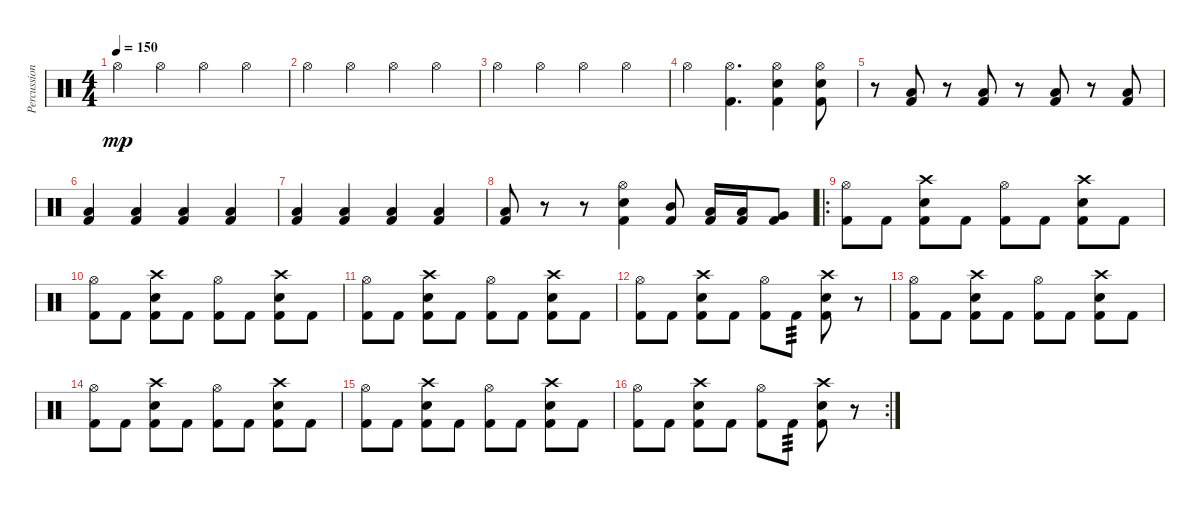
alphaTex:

\track ("Percussion" "Percussion") {instrument percussion}
\staff {score}
\articulation defaults
\ts (4 4)
\tempo 150
\clef neutral
\ks c "Hi-Hat (open)".4{dy mp} "Hi-Hat (open)".4 "Hi-Hat (open)".4 "Hi-Hat (open)".4
|
"Hi-Hat (open)".4 "Hi-Hat (open)".4 "Hi-Hat (open)".4 "Hi-Hat (open)".4 |
"Hi-Hat (open)".4 "Hi-Hat (open)".4 "Hi-Hat (open)".4 "Hi-Hat (open)".4 |
"Hi-Hat (open)".4 ("Hi-Hat (open)" "Kick (hit) 2").4{d} ("Hi-Hat (open)" "Electric Snare (hit)" "Kick (hit) 2").4 ("Hi-Hat (open)" "Electric Snare (hit)" "Kick (hit) 2").8 |
r.8 ("Low Floor Tom (hit)" "Kick (hit) 2").8 r.8 ("Low Floor Tom (hit)" "Kick (hit) 2").8 r.8 ("Low Floor Tom (hit)" "Kick (hit) 2").8 r.8 ("Low Floor Tom (hit)" "Kick (hit) 2").8 |
("Low Floor Tom (hit)" "Kick (hit) 2").4 ("Low Floor Tom (hit)" "Kick (hit) 2").4 ("Low Floor Tom (hit)" "Kick (hit) 2").4 ("Low Floor Tom (hit)" "Kick (hit) 2").4 |
("Low Floor Tom (hit)" "Kick (hit) 2").4 ("Low Floor Tom (hit)" "Kick (hit) 2").4 ("Low Floor Tom (hit)" "Kick (hit) 2").4 ("Low Floor Tom (hit)" "Kick (hit) 2").4 |
("Low Floor Tom (hit)" "Kick (hit) 2").8 r.8 r.8 ("Hi-Hat (open)" "Electric Snare (hit)" "Kick (hit) 2").4 ("Mid Tom (hit)" "Kick (hit) 2").8 ("Low Tom (hit)" "Kick (hit) 2").16 ("Low Tom (hit)" "Kick (hit) 2").16 ("Very Low Tom (hit)" "Kick (hit) 2").8 |
\ro
("Hi-Hat (open)" "Kick (hit) 2").8 "Kick (hit) 2".8 ("Crash high (hit)" "Electric Snare (hit)" "Kick (hit) 2").8 "Kick (hit) 2".8 ("Hi-Hat (open)" "Kick (hit) 2").8 "Kick (hit) 2".8 ("Crash high (hit)" "Electric Snare (hit)" "Kick (hit) 2").8 "Kick (hit) 2".8 |
("Hi-Hat (open)" "Kick (hit) 2").8 "Kick (hit) 2".8 ("Crash high (hit)" "Electric Snare (hit)" "Kick (hit) 2").8 "Kick (hit) 2".8 ("Hi-Hat (open)" "Kick (hit) 2").8 "Kick (hit) 2".8 ("Crash high (hit)" "Electric Snare (hit)" "Kick (hit) 2").8 "Kick (hit) 2".8 |
("Hi-Hat (open)" "Kick (hit) 2").8 "Kick (hit) 2".8 ("Crash high (hit)" "Electric Snare (hit)" "Kick (hit) 2").8 "Kick (hit) 2".8 ("Hi-Hat (open)" "Kick (hit) 2").8 "Kick (hit) 2".8 ("Crash high (hit)" "Electric Snare (hit)" "Kick (hit) 2").8 "Kick (hit) 2".8 |
("Hi-Hat (open)" "Kick (hit) 2").8 "Kick (hit) 2".8 ("Crash high (hit)" "Electric Snare (hit)" "Kick (hit) 2").8 "Kick (hit) 2".8 ("Hi-Hat (open)" "Kick (hit) 2").8 "Kick (hit) 2".8{tp 3} ("Crash high (hit)" "Electric Snare (hit)" "Kick (hit) 2").8 r.8 |
("Hi-Hat (open)" "Kick (hit) 2").8 "Kick (hit) 2".8 ("Crash high (hit)" "Electric Snare (hit)" "Kick (hit) 2").8 "Kick (hit) 2".8 ("Hi-Hat (open)" "Kick (hit) 2").8 "Kick (hit) 2".8 ("Crash high (hit)" "Electric Snare (hit)" "Kick (hit) 2").8 "Kick (hit) 2".8 |
("Hi-Hat (open)" "Kick (hit) 2").8 "Kick (hit) 2".8 ("Crash high (hit)" "Electric Snare (hit)" "Kick (hit) 2").8 "Kick (hit) 2".8 ("Hi-Hat (open)" "Kick (hit) 2").8 "Kick (hit) 2".8 ("Crash high (hit)" "Electric Snare (hit)" "Kick (hit) 2").8 "Kick (hit) 2".8 |
("Hi-Hat (open)" "Kick (hit) 2").8 "Kick (hit) 2".8 ("Crash high (hit)" "Electric Snare (hit)" "Kick (hit) 2").8 "Kick (hit) 2".8 ("Hi-Hat (open)" "Kick (hit) 2").8 "Kick (hit) 2".8 ("Crash high (hit)" "Electric Snare (hit)" "Kick (hit) 2").8 "Kick (hit) 2".8 |
\rc 2
("Hi-Hat (open)" "Kick (hit) 2").8 "Kick (hit) 2".8 ("Crash high (hit)" "Electric Snare (hit)" "Kick (hit) 2").8 "Kick (hit) 2".8 ("Hi-Hat (open)" "Kick (hit) 2").8 "Kick (hit) 2".8{tp 3} ("Crash high (hit)" "Electric Snare (hit)" "Kick (hit) 2").8 r.8
